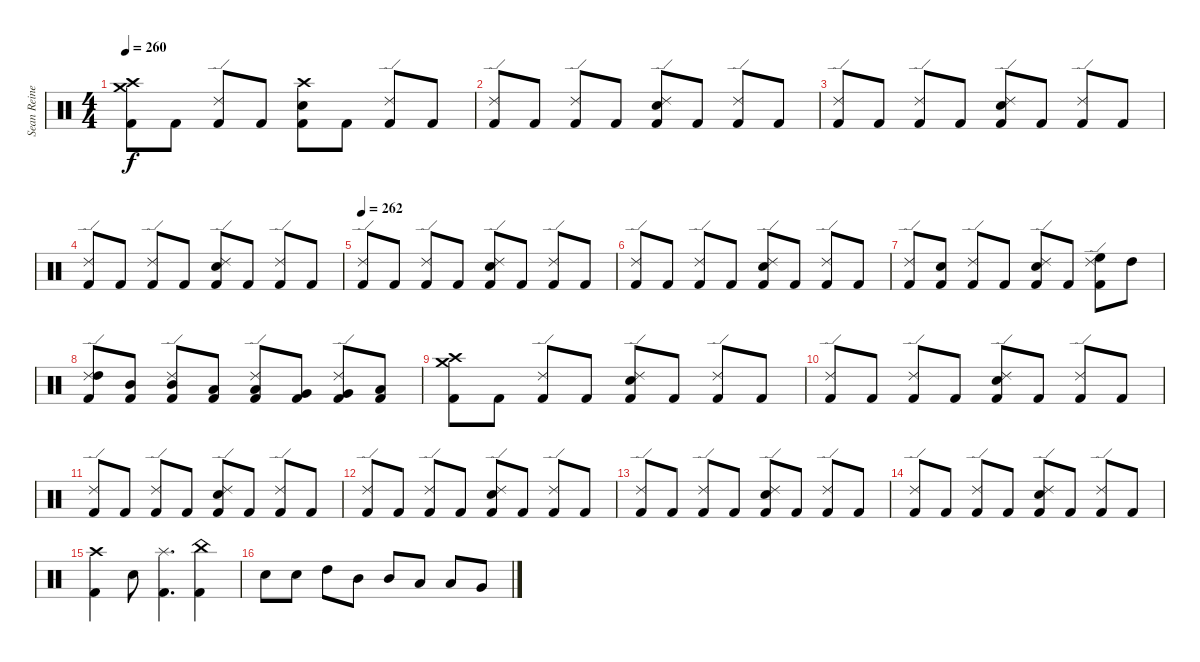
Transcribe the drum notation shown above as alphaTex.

\track ("Sean Reinert" "Sean Reine") {instrument percussion}
\staff {score}
\articulation defaults
\ts (4 4)
\tempo 260
\clef neutral
\ks c
("Crash medium (hit)" "Crash high (hit)" "Kick (hit) 2").8{dy f} "Kick (hit) 2".8 ("Ride (edge) 2" "Kick (hit) 2").8 "Kick (hit) 2".8 ("Crash high (hit)" "Snare (hit) 2" "Kick (hit) 2").8 "Kick (hit) 2".8 ("Ride (edge) 2" "Kick (hit) 2").8 "Kick (hit) 2".8 |
("Ride (edge) 2" "Kick (hit) 2").8 "Kick (hit) 2".8 ("Ride (edge) 2" "Kick (hit) 2").8 "Kick (hit) 2".8 ("Ride (edge) 2" "Snare (hit) 2" "Kick (hit) 2").8 "Kick (hit) 2".8 ("Ride (edge) 2" "Kick (hit) 2").8 "Kick (hit) 2".8 |
("Ride (edge) 2" "Kick (hit) 2").8 "Kick (hit) 2".8 ("Ride (edge) 2" "Kick (hit) 2").8 "Kick (hit) 2".8 ("Ride (edge) 2" "Snare (hit) 2" "Kick (hit) 2").8 "Kick (hit) 2".8 ("Ride (edge) 2" "Kick (hit) 2").8 "Kick (hit) 2".8 |
("Ride (edge) 2" "Kick (hit) 2").8 "Kick (hit) 2".8 ("Ride (edge) 2" "Kick (hit) 2").8 "Kick (hit) 2".8 ("Ride (edge) 2" "Snare (hit) 2" "Kick (hit) 2").8 "Kick (hit) 2".8 ("Ride (edge) 2" "Kick (hit) 2").8 "Kick (hit) 2".8 |
\tempo 262
("Ride (edge) 2" "Kick (hit) 2").8 "Kick (hit) 2".8 ("Ride (edge) 2" "Kick (hit) 2").8 "Kick (hit) 2".8 ("Ride (edge) 2" "Snare (hit) 2" "Kick (hit) 2").8 "Kick (hit) 2".8 ("Ride (edge) 2" "Kick (hit) 2").8 "Kick (hit) 2".8 |
("Ride (edge) 2" "Kick (hit) 2").8 "Kick (hit) 2".8 ("Ride (edge) 2" "Kick (hit) 2").8 "Kick (hit) 2".8 ("Ride (edge) 2" "Snare (hit) 2" "Kick (hit) 2").8 "Kick (hit) 2".8 ("Ride (edge) 2" "Kick (hit) 2").8 "Kick (hit) 2".8 |
("Ride (edge) 2" "Kick (hit) 2").8 ("Snare (hit) 2" "Kick (hit) 2").8 ("Ride (edge) 2" "Kick (hit) 2").8 "Kick (hit) 2".8 ("Ride (edge) 2" "Snare (hit) 2" "Kick (hit) 2").8 "Kick (hit) 2".8 ("Ride (edge) 2" "High Floor Tom (hit)" "Kick (hit) 2").8 "High Tom (hit)".8 |
("Ride (edge) 2" "High Tom (hit)" "Kick (hit) 2").8 ("Mid Tom (hit)" "Kick (hit) 2").8 ("Ride (edge) 2" "Mid Tom (hit)" "Kick (hit) 2").8 ("Low Tom (hit)" "Kick (hit) 2").8 ("Ride (edge) 2" "Low Tom (hit)" "Kick (hit) 2").8 ("Very Low Tom (hit)" "Kick (hit) 2").8 ("Ride (edge) 2" "Very Low Tom (hit)" "Kick (hit) 2").8 ("Low Floor Tom (hit)" "Kick (hit) 2").8 |
("Crash medium (hit)" "Crash high (hit)" "Kick (hit) 2").8 "Kick (hit) 2".8 ("Ride (edge) 2" "Kick (hit) 2").8 "Kick (hit) 2".8 ("Ride (edge) 2" "Snare (hit) 2" "Kick (hit) 2").8 "Kick (hit) 2".8 ("Ride (edge) 2" "Kick (hit) 2").8 "Kick (hit) 2".8 |
("Ride (edge) 2" "Kick (hit) 2").8 "Kick (hit) 2".8 ("Ride (edge) 2" "Kick (hit) 2").8 "Kick (hit) 2".8 ("Ride (edge) 2" "Snare (hit) 2" "Kick (hit) 2").8 "Kick (hit) 2".8 ("Ride (edge) 2" "Kick (hit) 2").8 "Kick (hit) 2".8 |
("Ride (edge) 2" "Kick (hit) 2").8 "Kick (hit) 2".8 ("Ride (edge) 2" "Kick (hit) 2").8 "Kick (hit) 2".8 ("Ride (edge) 2" "Snare (hit) 2" "Kick (hit) 2").8 "Kick (hit) 2".8 ("Ride (edge) 2" "Kick (hit) 2").8 "Kick (hit) 2".8 |
("Ride (edge) 2" "Kick (hit) 2").8 "Kick (hit) 2".8 ("Ride (edge) 2" "Kick (hit) 2").8 "Kick (hit) 2".8 ("Ride (edge) 2" "Snare (hit) 2" "Kick (hit) 2").8 "Kick (hit) 2".8 ("Ride (edge) 2" "Kick (hit) 2").8 "Kick (hit) 2".8 |
("Ride (edge) 2" "Kick (hit) 2").8 "Kick (hit) 2".8 ("Ride (edge) 2" "Kick (hit) 2").8 "Kick (hit) 2".8 ("Ride (edge) 2" "Snare (hit) 2" "Kick (hit) 2").8 "Kick (hit) 2".8 ("Ride (edge) 2" "Kick (hit) 2").8 "Kick (hit) 2".8 |
("Ride (edge) 2" "Kick (hit) 2").8 "Kick (hit) 2".8 ("Ride (edge) 2" "Kick (hit) 2").8 "Kick (hit) 2".8 ("Ride (edge) 2" "Snare (hit) 2" "Kick (hit) 2").8 "Kick (hit) 2".8 ("Ride (edge) 2" "Kick (hit) 2").8 "Kick (hit) 2".8 |
("Crash high (hit)" "Kick (hit) 2").4 "Snare (hit) 2".8 ("Splash (hit)" "Kick (hit) 2").4{d} ("China (hit)" "Kick (hit) 2").4 |
"Snare (hit) 2".8 "Snare (hit) 2".8 "High Tom (hit)".8 "Mid Tom (hit)".8 "Mid Tom (hit)".8 "Low Tom (hit)".8 "Low Tom (hit)".8 "Very Low Tom (hit)".8
